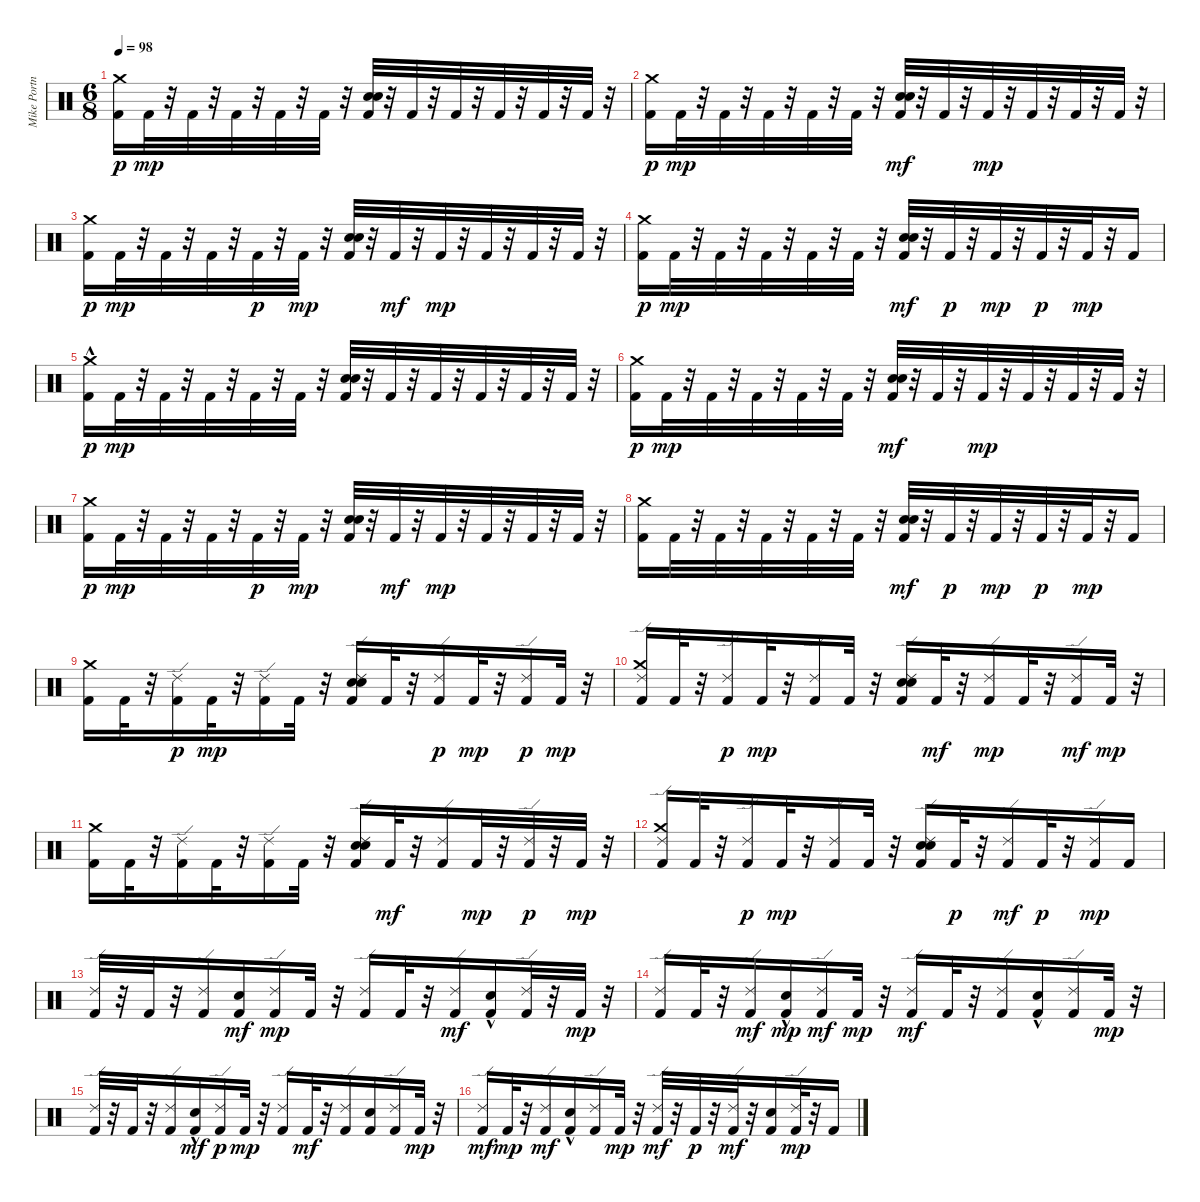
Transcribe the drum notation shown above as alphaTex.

\track ("Mike Portnoy" "Mike Portn") {instrument percussion}
\staff {score}
\articulation defaults
\ts (6 8)
\tempo 98
\clef neutral
\ks c
("Kick (hit) 2" "Crash medium (hit)").16{dy p} "Kick (hit) 2".32{dy mp} r.32 "Kick (hit) 2".32 r.32 "Kick (hit) 2".32 r.32 "Kick (hit) 2".32 r.32 "Kick (hit) 2".32 r.32 ("Kick (hit) 2" "Snare (hit) 2" "Electric Snare (hit)").32 r.32 "Kick (hit) 2".32 r.32 "Kick (hit) 2".32 r.32 "Kick (hit) 2".32 r.32 "Kick (hit) 2".32 r.32 "Kick (hit) 2".32 r.32 |
("Kick (hit) 2" "Crash medium (hit)").16{dy p} "Kick (hit) 2".32{dy mp} r.32 "Kick (hit) 2".32 r.32 "Kick (hit) 2".32 r.32 "Kick (hit) 2".32 r.32 "Kick (hit) 2".32 r.32 ("Kick (hit) 2" "Snare (hit) 2" "Electric Snare (hit)").32{dy mf} r.32 "Kick (hit) 2".32 r.32 "Kick (hit) 2".32{dy mp} r.32 "Kick (hit) 2".32 r.32 "Kick (hit) 2".32 r.32 "Kick (hit) 2".32 r.32 |
("Kick (hit) 2" "Crash medium (hit)").16{dy p} "Kick (hit) 2".32{dy mp} r.32 "Kick (hit) 2".32 r.32 "Kick (hit) 2".32 r.32 "Kick (hit) 2".32{dy p} r.32 "Kick (hit) 2".32{dy mp} r.32 ("Kick (hit) 2" "Snare (hit) 2" "Electric Snare (hit)").32 r.32 "Kick (hit) 2".32{dy mf} r.32 "Kick (hit) 2".32{dy mp} r.32 "Kick (hit) 2".32 r.32 "Kick (hit) 2".32 r.32 "Kick (hit) 2".32 r.32 |
("Kick (hit) 2" "Crash medium (hit)").16{dy p} "Kick (hit) 2".32{dy mp} r.32 "Kick (hit) 2".32 r.32 "Kick (hit) 2".32 r.32 "Kick (hit) 2".32 r.32 "Kick (hit) 2".32 r.32 ("Kick (hit) 2" "Snare (hit) 2" "Electric Snare (hit)").32{dy mf} r.32 "Kick (hit) 2".32{dy p} r.32 "Kick (hit) 2".32{dy mp} r.32 "Kick (hit) 2".32{dy p} r.32 "Kick (hit) 2".32{dy mp} r.32 "Kick (hit) 2".16 |
("Kick (hit) 2" "Crash medium (hit)"{hac}).16{dy p} "Kick (hit) 2".32{dy mp} r.32 "Kick (hit) 2".32 r.32 "Kick (hit) 2".32 r.32 "Kick (hit) 2".32 r.32 "Kick (hit) 2".32 r.32 ("Kick (hit) 2" "Snare (hit) 2" "Electric Snare (hit)").32 r.32 "Kick (hit) 2".32 r.32 "Kick (hit) 2".32 r.32 "Kick (hit) 2".32 r.32 "Kick (hit) 2".32 r.32 "Kick (hit) 2".32 r.32 |
("Kick (hit) 2" "Crash medium (hit)").16{dy p} "Kick (hit) 2".32{dy mp} r.32 "Kick (hit) 2".32 r.32 "Kick (hit) 2".32 r.32 "Kick (hit) 2".32 r.32 "Kick (hit) 2".32 r.32 ("Kick (hit) 2" "Snare (hit) 2" "Electric Snare (hit)").32{dy mf} r.32 "Kick (hit) 2".32 r.32 "Kick (hit) 2".32{dy mp} r.32 "Kick (hit) 2".32 r.32 "Kick (hit) 2".32 r.32 "Kick (hit) 2".32 r.32 |
("Kick (hit) 2" "Crash medium (hit)").16{dy p} "Kick (hit) 2".32{dy mp} r.32 "Kick (hit) 2".32 r.32 "Kick (hit) 2".32 r.32 "Kick (hit) 2".32{dy p} r.32 "Kick (hit) 2".32{dy mp} r.32 ("Kick (hit) 2" "Snare (hit) 2" "Electric Snare (hit)").32 r.32 "Kick (hit) 2".32{dy mf} r.32 "Kick (hit) 2".32{dy mp} r.32 "Kick (hit) 2".32 r.32 "Kick (hit) 2".32 r.32 "Kick (hit) 2".32 r.32 |
("Kick (hit) 2" "Crash medium (hit)").16 "Kick (hit) 2".32 r.32 "Kick (hit) 2".32 r.32 "Kick (hit) 2".32 r.32 "Kick (hit) 2".32 r.32 "Kick (hit) 2".32 r.32 ("Kick (hit) 2" "Snare (hit) 2" "Electric Snare (hit)").32{dy mf} r.32 "Kick (hit) 2".32{dy p} r.32 "Kick (hit) 2".32{dy mp} r.32 "Kick (hit) 2".32{dy p} r.32 "Kick (hit) 2".32{dy mp} r.32 "Kick (hit) 2".16 |
("Kick (hit) 2" "Crash medium (hit)").16 "Kick (hit) 2".32 r.32 ("Kick (hit) 2" "Ride (edge) 2").16{dy p} "Kick (hit) 2".32{dy mp} r.32 ("Kick (hit) 2" "Ride (edge) 2").16 "Kick (hit) 2".32 r.32 ("Kick (hit) 2" "Snare (hit) 2" "Electric Snare (hit)" "Ride (edge) 2").16 "Kick (hit) 2".32 r.32 ("Kick (hit) 2" "Ride (edge) 2").16{dy p} "Kick (hit) 2".32{dy mp} r.32 ("Kick (hit) 2" "Ride (edge) 2").16{dy p} "Kick (hit) 2".32{dy mp} r.32 |
("Kick (hit) 2" "Crash medium (hit)" "Ride (edge) 2").16 "Kick (hit) 2".32 r.32 ("Kick (hit) 2" "Ride (edge) 2").16{dy p} "Kick (hit) 2".32{dy mp} r.32 ("Kick (hit) 2" "Ride (edge) 2").16 "Kick (hit) 2".32 r.32 ("Kick (hit) 2" "Snare (hit) 2" "Electric Snare (hit)" "Ride (edge) 2").16 "Kick (hit) 2".32{dy mf} r.32 ("Kick (hit) 2" "Ride (edge) 2").16{dy mp} "Kick (hit) 2".32 r.32 ("Kick (hit) 2" "Ride (edge) 2").16{dy mf} "Kick (hit) 2".32{dy mp} r.32 |
("Kick (hit) 2" "Crash medium (hit)").16 "Kick (hit) 2".32 r.32 ("Kick (hit) 2" "Ride (edge) 2").16 "Kick (hit) 2".32 r.32 ("Kick (hit) 2" "Ride (edge) 2").16 "Kick (hit) 2".32 r.32 ("Kick (hit) 2" "Snare (hit) 2" "Electric Snare (hit)" "Ride (edge) 2").16 "Kick (hit) 2".32{dy mf} r.32 ("Kick (hit) 2" "Ride (edge) 2").16 "Kick (hit) 2".32{dy mp} r.32 ("Kick (hit) 2" "Ride (edge) 2").32{dy p} r.32 "Kick (hit) 2".32{dy mp} r.32 |
("Kick (hit) 2" "Crash medium (hit)" "Ride (edge) 2").16 "Kick (hit) 2".32 r.32 ("Kick (hit) 2" "Ride (edge) 2").16{dy p} "Kick (hit) 2".32{dy mp} r.32 ("Kick (hit) 2" "Ride (edge) 2").16 "Kick (hit) 2".32 r.32 ("Kick (hit) 2" "Snare (hit) 2" "Electric Snare (hit)" "Ride (edge) 2").16 "Kick (hit) 2".32{dy p} r.32 ("Kick (hit) 2" "Ride (edge) 2").16{dy mf} "Kick (hit) 2".32{dy p} r.32 ("Kick (hit) 2" "Ride (edge) 2").16{dy mp} "Kick (hit) 2".16 |
("Kick (hit) 2" "Ride (edge) 2").32 r.32 "Kick (hit) 2".32 r.32 ("Kick (hit) 2" "Ride (edge) 2").16 ("Kick (hit) 2" "Electric Snare (hit)").16{dy mf} ("Kick (hit) 2" "Ride (edge) 2").16{dy mp} "Kick (hit) 2".32 r.32 ("Kick (hit) 2" "Ride (edge) 2").16 "Kick (hit) 2".32 r.32 ("Kick (hit) 2" "Ride (edge) 2").16{dy mf} ("Kick (hit) 2" "Electric Snare (hit)"{hac}).16 ("Kick (hit) 2" "Ride (edge) 2").32 r.32 "Kick (hit) 2".32{dy mp} r.32 |
("Kick (hit) 2" "Ride (edge) 2").16 "Kick (hit) 2".32 r.32 ("Kick (hit) 2" "Ride (edge) 2").16{dy mf} ("Kick (hit) 2" "Electric Snare (hit)"{hac}).16{dy mp} ("Kick (hit) 2" "Ride (edge) 2").16{dy mf} "Kick (hit) 2".32{dy mp} r.32 ("Kick (hit) 2" "Ride (edge) 2").16{dy mf} "Kick (hit) 2".32 r.32 ("Kick (hit) 2" "Ride (edge) 2").16 ("Kick (hit) 2" "Electric Snare (hit)"{hac}).16 ("Kick (hit) 2" "Ride (edge) 2").16 "Kick (hit) 2".32{dy mp} r.32 |
("Kick (hit) 2" "Ride (edge) 2").32 r.32 "Kick (hit) 2".32 r.32 ("Kick (hit) 2" "Ride (edge) 2").16 ("Kick (hit) 2" "Electric Snare (hit)"{hac}).16{dy mf} ("Kick (hit) 2" "Ride (edge) 2").16{dy p} "Kick (hit) 2".32{dy mp} r.32 ("Kick (hit) 2" "Ride (edge) 2").16 "Kick (hit) 2".32{dy mf} r.32 ("Kick (hit) 2" "Ride (edge) 2").16 ("Kick (hit) 2" "Electric Snare (hit)").16 ("Kick (hit) 2" "Ride (edge) 2").16 "Kick (hit) 2".32{dy mp} r.32 |
("Kick (hit) 2" "Ride (edge) 2").16{dy mf} "Kick (hit) 2".32{dy mp} r.32 ("Kick (hit) 2" "Ride (edge) 2").16{dy mf} ("Kick (hit) 2" "Electric Snare (hit)"{hac}).16 ("Kick (hit) 2" "Ride (edge) 2").16 "Kick (hit) 2".32{dy mp} r.32 ("Kick (hit) 2" "Ride (edge) 2").32{dy mf} r.32 "Kick (hit) 2".32{dy p} r.32 ("Kick (hit) 2" "Ride (edge) 2").32{dy mf} r.32 ("Kick (hit) 2" "Electric Snare (hit)").16 ("Kick (hit) 2" "Ride (edge) 2").32{dy mp} r.32 "Kick (hit) 2".16
